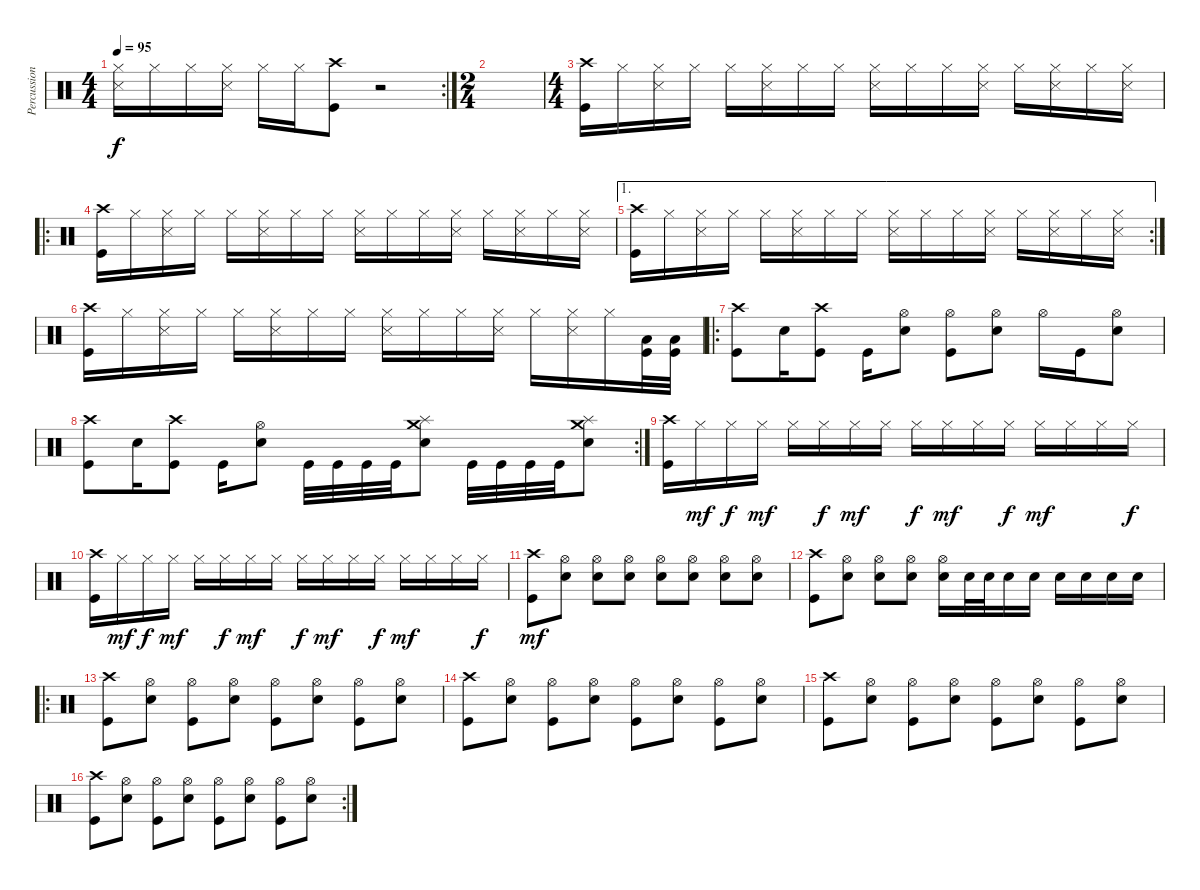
\track ("Percussion" "Percussion") {instrument percussion}
\staff {score}
\articulation defaults
\rc 2
\ts (4 4)
\tempo 95
\clef neutral
\ks c
("Hi-Hat (closed)" "Snare (side stick) 3").16{dy f} "Hi-Hat (closed)".16 "Hi-Hat (closed)".16 ("Hi-Hat (closed)" "Snare (side stick) 3").16 "Hi-Hat (closed)".16 "Hi-Hat (closed)".16 ("Crash high (hit)" "Kick (hit)").8 r.2 |
\ts (2 4)
|
\ts (4 4)
("Crash high (hit)" "Kick (hit)").16 "Hi-Hat (closed)".16 ("Hi-Hat (closed)" "Snare (side stick) 3").16 "Hi-Hat (closed)".16 "Hi-Hat (closed)".16 ("Hi-Hat (closed)" "Snare (side stick) 3").16 "Hi-Hat (closed)".16 "Hi-Hat (closed)".16 ("Hi-Hat (closed)" "Snare (side stick) 3").16 "Hi-Hat (closed)".16 "Hi-Hat (closed)".16 ("Hi-Hat (closed)" "Snare (side stick) 3").16 "Hi-Hat (closed)".16 ("Hi-Hat (closed)" "Snare (side stick) 3").16 "Hi-Hat (closed)".16 ("Hi-Hat (closed)" "Snare (side stick) 3").16 |
\ro
("Crash high (hit)" "Kick (hit)").16 "Hi-Hat (closed)".16 ("Hi-Hat (closed)" "Snare (side stick) 3").16 "Hi-Hat (closed)".16 "Hi-Hat (closed)".16 ("Hi-Hat (closed)" "Snare (side stick) 3").16 "Hi-Hat (closed)".16 "Hi-Hat (closed)".16 ("Hi-Hat (closed)" "Snare (side stick) 3").16 "Hi-Hat (closed)".16 "Hi-Hat (closed)".16 ("Hi-Hat (closed)" "Snare (side stick) 3").16 "Hi-Hat (closed)".16 ("Hi-Hat (closed)" "Snare (side stick) 3").16 "Hi-Hat (closed)".16 ("Hi-Hat (closed)" "Snare (side stick) 3").16 |
\ae 1
\rc 2
("Crash high (hit)" "Kick (hit)").16 "Hi-Hat (closed)".16 ("Hi-Hat (closed)" "Snare (side stick) 3").16 "Hi-Hat (closed)".16 "Hi-Hat (closed)".16 ("Hi-Hat (closed)" "Snare (side stick) 3").16 "Hi-Hat (closed)".16 "Hi-Hat (closed)".16 ("Hi-Hat (closed)" "Snare (side stick) 3").16 "Hi-Hat (closed)".16 "Hi-Hat (closed)".16 ("Hi-Hat (closed)" "Snare (side stick) 3").16 "Hi-Hat (closed)".16 ("Hi-Hat (closed)" "Snare (side stick) 3").16 "Hi-Hat (closed)".16 ("Hi-Hat (closed)" "Snare (side stick) 3").16 |
("Crash high (hit)" "Kick (hit)").16 "Hi-Hat (closed)".16 ("Hi-Hat (closed)" "Snare (side stick) 3").16 "Hi-Hat (closed)".16 "Hi-Hat (closed)".16 ("Hi-Hat (closed)" "Snare (side stick) 3").16 "Hi-Hat (closed)".16 "Hi-Hat (closed)".16 ("Hi-Hat (closed)" "Snare (side stick) 3").16 "Hi-Hat (closed)".16 "Hi-Hat (closed)".16 ("Hi-Hat (closed)" "Snare (side stick) 3").16 "Hi-Hat (closed)".16 ("Hi-Hat (closed)" "Snare (side stick) 3").16 "Hi-Hat (closed)".16 ("Low Floor Tom (hit)" "Kick (hit)").32 ("Low Floor Tom (hit)" "Kick (hit)").32 |
\ro
("Crash high (hit)" "Kick (hit)").8 "Electric Snare (hit)".16 ("Crash high (hit)" "Kick (hit)").8 "Kick (hit)".16 ("Hi-Hat (open)" "Electric Snare (hit)").8 ("Hi-Hat (open)" "Kick (hit)").8 ("Hi-Hat (open)" "Electric Snare (hit)").8 "Hi-Hat (open)".16 "Kick (hit)".16 ("Hi-Hat (open)" "Electric Snare (hit)").8 |
\rc 2
("Crash high (hit)" "Kick (hit)").8 "Electric Snare (hit)".16 ("Crash high (hit)" "Kick (hit)").8 "Kick (hit)".16 ("Hi-Hat (open)" "Electric Snare (hit)").8 "Kick (hit)".32 "Kick (hit)".32 "Kick (hit)".32 "Kick (hit)".32 ("Splash (hit)" "Crash medium (hit)" "Electric Snare (hit)").8 "Kick (hit)".32 "Kick (hit)".32 "Kick (hit)".32 "Kick (hit)".32 ("Splash (hit)" "Crash medium (hit)" "Electric Snare (hit)").8 |
("Crash high (hit)" "Kick (hit)").16 "Hi-Hat (closed)".16{dy mf} "Hi-Hat (closed)".16{dy f} "Hi-Hat (closed)".16{dy mf} "Hi-Hat (closed)".16 "Hi-Hat (closed)".16{dy f} "Hi-Hat (closed)".16{dy mf} "Hi-Hat (closed)".16 "Hi-Hat (closed)".16{dy f} "Hi-Hat (closed)".16{dy mf} "Hi-Hat (closed)".16 "Hi-Hat (closed)".16{dy f} "Hi-Hat (closed)".16{dy mf} "Hi-Hat (closed)".16 "Hi-Hat (closed)".16 "Hi-Hat (closed)".16{dy f} |
("Crash high (hit)" "Kick (hit)").16 "Hi-Hat (closed)".16{dy mf} "Hi-Hat (closed)".16{dy f} "Hi-Hat (closed)".16{dy mf} "Hi-Hat (closed)".16 "Hi-Hat (closed)".16{dy f} "Hi-Hat (closed)".16{dy mf} "Hi-Hat (closed)".16 "Hi-Hat (closed)".16{dy f} "Hi-Hat (closed)".16{dy mf} "Hi-Hat (closed)".16 "Hi-Hat (closed)".16{dy f} "Hi-Hat (closed)".16{dy mf} "Hi-Hat (closed)".16 "Hi-Hat (closed)".16 "Hi-Hat (closed)".16{dy f} |
("Crash high (hit)" "Kick (hit)").8{dy mf} ("Hi-Hat (open)" "Electric Snare (hit)").8 ("Hi-Hat (open)" "Electric Snare (hit)").8 ("Hi-Hat (open)" "Electric Snare (hit)").8 ("Hi-Hat (open)" "Electric Snare (hit)").8 ("Hi-Hat (open)" "Electric Snare (hit)").8 ("Hi-Hat (open)" "Electric Snare (hit)").8 ("Hi-Hat (open)" "Electric Snare (hit)").8 |
("Crash high (hit)" "Kick (hit)").8 ("Hi-Hat (open)" "Electric Snare (hit)").8 ("Hi-Hat (open)" "Electric Snare (hit)").8 ("Hi-Hat (open)" "Electric Snare (hit)").8 ("Hi-Hat (open)" "Electric Snare (hit)").16 "Electric Snare (hit)".32 "Electric Snare (hit)".32 "Electric Snare (hit)".16 "Electric Snare (hit)".16 "Electric Snare (hit)".16 "Electric Snare (hit)".16 "Electric Snare (hit)".16 "Electric Snare (hit)".16 |
\ro
("Crash high (hit)" "Kick (hit)").8 ("Hi-Hat (open)" "Electric Snare (hit)").8 ("Hi-Hat (open)" "Kick (hit)").8 ("Hi-Hat (open)" "Electric Snare (hit)").8 ("Hi-Hat (open)" "Kick (hit)").8 ("Hi-Hat (open)" "Electric Snare (hit)").8 ("Hi-Hat (open)" "Kick (hit)").8 ("Hi-Hat (open)" "Electric Snare (hit)").8 |
("Crash high (hit)" "Kick (hit)").8 ("Hi-Hat (open)" "Electric Snare (hit)").8 ("Hi-Hat (open)" "Kick (hit)").8 ("Hi-Hat (open)" "Electric Snare (hit)").8 ("Hi-Hat (open)" "Kick (hit)").8 ("Hi-Hat (open)" "Electric Snare (hit)").8 ("Hi-Hat (open)" "Kick (hit)").8 ("Hi-Hat (open)" "Electric Snare (hit)").8 |
("Crash high (hit)" "Kick (hit)").8 ("Hi-Hat (open)" "Electric Snare (hit)").8 ("Hi-Hat (open)" "Kick (hit)").8 ("Hi-Hat (open)" "Electric Snare (hit)").8 ("Hi-Hat (open)" "Kick (hit)").8 ("Hi-Hat (open)" "Electric Snare (hit)").8 ("Hi-Hat (open)" "Kick (hit)").8 ("Hi-Hat (open)" "Electric Snare (hit)").8 |
\rc 2
("Crash high (hit)" "Kick (hit)").8 ("Hi-Hat (open)" "Electric Snare (hit)").8 ("Hi-Hat (open)" "Kick (hit)").8 ("Hi-Hat (open)" "Electric Snare (hit)").8 ("Hi-Hat (open)" "Kick (hit)").8 ("Hi-Hat (open)" "Electric Snare (hit)").8 ("Hi-Hat (open)" "Kick (hit)").8 ("Hi-Hat (open)" "Electric Snare (hit)").8
